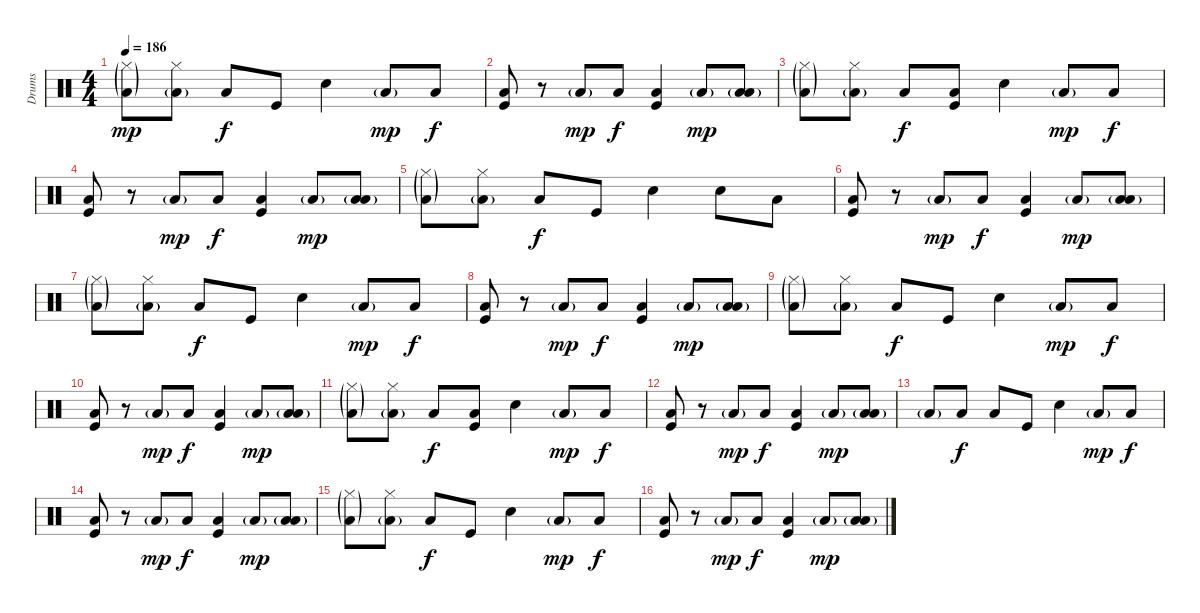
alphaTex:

\track ("Drums" "Drums") {instrument percussion}
\staff {score}
\articulation defaults
\ts (4 4)
\tempo 186
\clef neutral
\ks c
("Hi-Hat (closed)"{g} "Low Floor Tom (hit)"{g}).8{dy mp} ("Hi-Hat (closed)" "Low Floor Tom (hit)"{g}).8 "Low Floor Tom (hit)".8{dy f} "Kick (hit)".8 "Electric Snare (hit)".4 "Low Floor Tom (hit)"{g}.8{dy mp} "Low Floor Tom (hit)".8{dy f} |
("Low Floor Tom (hit)" "Kick (hit)").8 r.8 "Low Floor Tom (hit)"{g}.8{dy mp} "Low Floor Tom (hit)".8{dy f} ("Low Floor Tom (hit)" "Kick (hit)").4 "Low Floor Tom (hit)"{g}.8{dy mp} ("Low Tom (hit)" "Low Floor Tom (hit)"{g}).8 |
("Hi-Hat (closed)"{g} "Low Floor Tom (hit)"{g}).8 ("Hi-Hat (closed)" "Low Floor Tom (hit)"{g}).8 "Low Floor Tom (hit)".8{dy f} ("Low Tom (hit)" "Kick (hit)").8 "Electric Snare (hit)".4 "Low Floor Tom (hit)"{g}.8{dy mp} "Low Floor Tom (hit)".8{dy f} |
("Low Floor Tom (hit)" "Kick (hit)").8 r.8 "Low Floor Tom (hit)"{g}.8{dy mp} "Low Floor Tom (hit)".8{dy f} ("Low Floor Tom (hit)" "Kick (hit)").4 "Low Floor Tom (hit)"{g}.8{dy mp} ("Low Tom (hit)" "Low Floor Tom (hit)"{g}).8 |
("Hi-Hat (closed)"{g} "Low Floor Tom (hit)"{g}).8 ("Hi-Hat (closed)" "Low Floor Tom (hit)"{g}).8 "Low Floor Tom (hit)".8{dy f} "Kick (hit)".8 "Electric Snare (hit)".4 "Electric Snare (hit)".8 "Low Tom (hit)".8 |
("Low Floor Tom (hit)" "Kick (hit)").8 r.8 "Low Floor Tom (hit)"{g}.8{dy mp} "Low Floor Tom (hit)".8{dy f} ("Low Floor Tom (hit)" "Kick (hit)").4 "Low Floor Tom (hit)"{g}.8{dy mp} ("Low Tom (hit)" "Low Floor Tom (hit)"{g}).8 |
("Hi-Hat (closed)"{g} "Low Floor Tom (hit)"{g}).8 ("Hi-Hat (closed)" "Low Floor Tom (hit)"{g}).8 "Low Floor Tom (hit)".8{dy f} "Kick (hit)".8 "Electric Snare (hit)".4 "Low Floor Tom (hit)"{g}.8{dy mp} "Low Floor Tom (hit)".8{dy f} |
("Low Floor Tom (hit)" "Kick (hit)").8 r.8 "Low Floor Tom (hit)"{g}.8{dy mp} "Low Floor Tom (hit)".8{dy f} ("Low Floor Tom (hit)" "Kick (hit)").4 "Low Floor Tom (hit)"{g}.8{dy mp} ("Low Tom (hit)" "Low Floor Tom (hit)"{g}).8 |
("Hi-Hat (closed)"{g} "Low Floor Tom (hit)"{g}).8 ("Hi-Hat (closed)" "Low Floor Tom (hit)"{g}).8 "Low Floor Tom (hit)".8{dy f} "Kick (hit)".8 "Electric Snare (hit)".4 "Low Floor Tom (hit)"{g}.8{dy mp} "Low Floor Tom (hit)".8{dy f} |
("Low Floor Tom (hit)" "Kick (hit)").8 r.8 "Low Floor Tom (hit)"{g}.8{dy mp} "Low Floor Tom (hit)".8{dy f} ("Low Floor Tom (hit)" "Kick (hit)").4 "Low Floor Tom (hit)"{g}.8{dy mp} ("Low Tom (hit)" "Low Floor Tom (hit)"{g}).8 |
("Hi-Hat (closed)"{g} "Low Floor Tom (hit)"{g}).8 ("Hi-Hat (closed)" "Low Floor Tom (hit)"{g}).8 "Low Floor Tom (hit)".8{dy f} ("Low Tom (hit)" "Kick (hit)").8 "Electric Snare (hit)".4 "Low Floor Tom (hit)"{g}.8{dy mp} "Low Floor Tom (hit)".8{dy f} |
("Low Floor Tom (hit)" "Kick (hit)").8 r.8 "Low Floor Tom (hit)"{g}.8{dy mp} "Low Floor Tom (hit)".8{dy f} ("Low Floor Tom (hit)" "Kick (hit)").4 "Low Floor Tom (hit)"{g}.8{dy mp} ("Low Tom (hit)" "Low Floor Tom (hit)"{g}).8 |
"Low Floor Tom (hit)"{g}.8 "Low Tom (hit)".8{dy f} "Low Floor Tom (hit)".8 "Kick (hit)".8 "Electric Snare (hit)".4 "Low Floor Tom (hit)"{g}.8{dy mp} "Low Floor Tom (hit)".8{dy f} |
("Low Floor Tom (hit)" "Kick (hit)").8 r.8 "Low Floor Tom (hit)"{g}.8{dy mp} "Low Floor Tom (hit)".8{dy f} ("Low Floor Tom (hit)" "Kick (hit)").4 "Low Floor Tom (hit)"{g}.8{dy mp} ("Low Tom (hit)" "Low Floor Tom (hit)"{g}).8 |
("Hi-Hat (closed)"{g} "Low Floor Tom (hit)"{g}).8 ("Hi-Hat (closed)" "Low Floor Tom (hit)"{g}).8 "Low Floor Tom (hit)".8{dy f} "Kick (hit)".8 "Electric Snare (hit)".4 "Low Floor Tom (hit)"{g}.8{dy mp} "Low Floor Tom (hit)".8{dy f} |
("Low Floor Tom (hit)" "Kick (hit)").8 r.8 "Low Floor Tom (hit)"{g}.8{dy mp} "Low Floor Tom (hit)".8{dy f} ("Low Floor Tom (hit)" "Kick (hit)").4 "Low Floor Tom (hit)"{g}.8{dy mp} ("Low Tom (hit)" "Low Floor Tom (hit)"{g}).8
